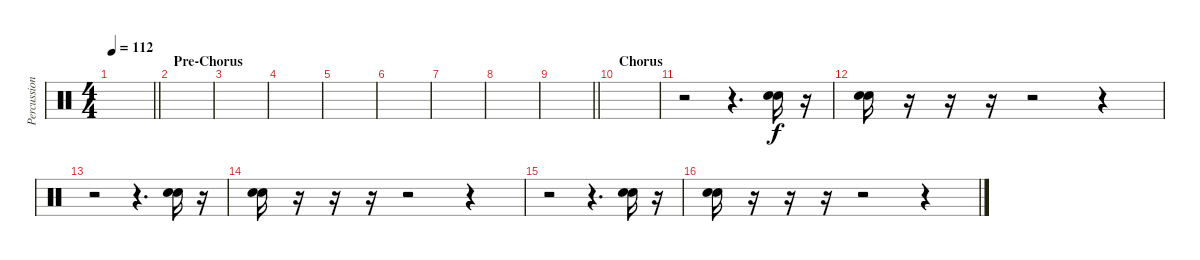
\track ("Percussion" "Percussion") {instrument percussion}
\staff {score}
\articulation defaults
\ts (4 4)
\tempo 112
\clef neutral
\barLineRight lightlight
\ks c
|
\section ("" "Pre-Chorus")
|
|
|
|
|
|
|
\barLineRight lightlight
|
\section ("" "Chorus")
|
r.2 r.4{d} ("Hand Clap (hit)" "Hand Clap (hit)").16 r.16 |
("Hand Clap (hit)" "Hand Clap (hit)").16 r.16 r.16 r.16 r.2 r.4 |
r.2 r.4{d} ("Hand Clap (hit)" "Hand Clap (hit)").16 r.16 |
("Hand Clap (hit)" "Hand Clap (hit)").16 r.16 r.16 r.16 r.2 r.4 |
r.2 r.4{d} ("Hand Clap (hit)" "Hand Clap (hit)").16 r.16 |
("Hand Clap (hit)" "Hand Clap (hit)").16 r.16 r.16 r.16 r.2 r.4
